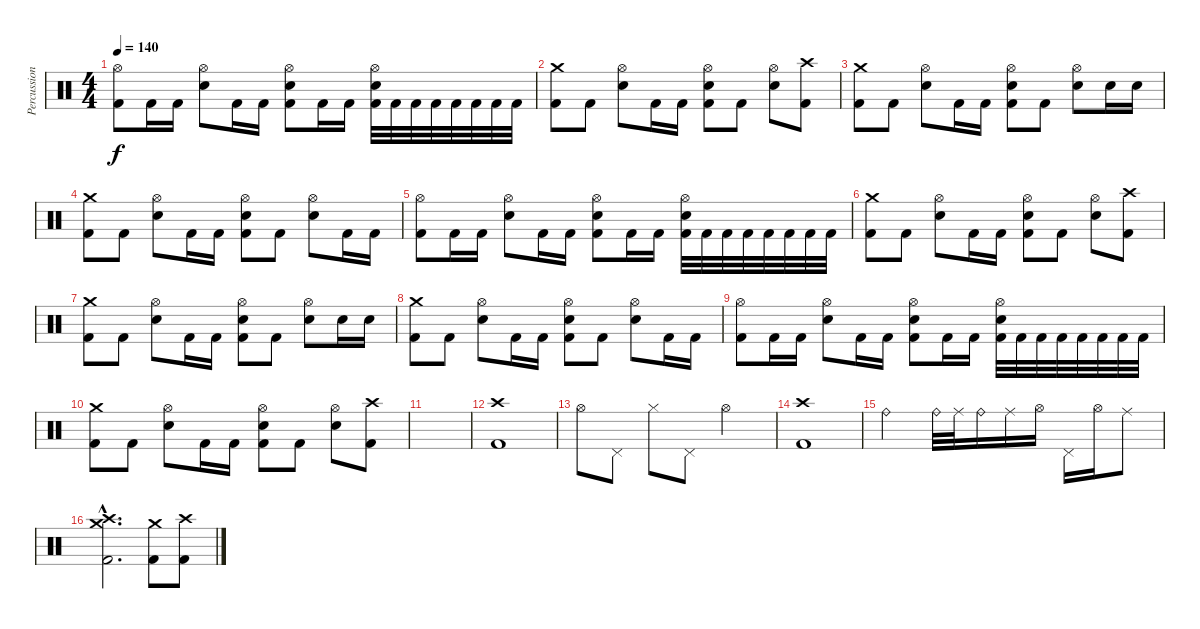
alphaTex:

\track ("Percussion" "Percussion") {instrument percussion}
\staff {score}
\articulation defaults
\ts (4 4)
\tempo 140
\clef neutral
\ks c
("Hi-Hat (open)" "Kick (hit) 2").8{dy f} "Kick (hit) 2".16 "Kick (hit) 2".16 ("Hi-Hat (open)" "Electric Snare (hit)").8 "Kick (hit) 2".16 "Kick (hit) 2".16 ("Hi-Hat (open)" "Electric Snare (hit)" "Kick (hit) 2").8 "Kick (hit) 2".16 "Kick (hit) 2".16 ("Hi-Hat (open)" "Electric Snare (hit)" "Kick (hit) 2").32 "Kick (hit) 2".32 "Kick (hit) 2".32 "Kick (hit) 2".32 "Kick (hit) 2".32 "Kick (hit) 2".32 "Kick (hit) 2".32 "Kick (hit) 2".32 |
("Crash medium (hit)" "Kick (hit) 2").8 "Kick (hit) 2".8 ("Hi-Hat (open)" "Electric Snare (hit)").8 "Kick (hit) 2".16 "Kick (hit) 2".16 ("Hi-Hat (open)" "Electric Snare (hit)" "Kick (hit) 2").8 "Kick (hit) 2".8 ("Hi-Hat (open)" "Electric Snare (hit)").8 ("Crash high (hit)" "Kick (hit) 2").8 |
("Crash medium (hit)" "Kick (hit) 2").8 "Kick (hit) 2".8 ("Hi-Hat (open)" "Electric Snare (hit)").8 "Kick (hit) 2".16 "Kick (hit) 2".16 ("Hi-Hat (open)" "Electric Snare (hit)" "Kick (hit) 2").8 "Kick (hit) 2".8 ("Hi-Hat (open)" "Electric Snare (hit)").8 "Electric Snare (hit)".16 "Electric Snare (hit)".16 |
("Crash medium (hit)" "Kick (hit) 2").8 "Kick (hit) 2".8 ("Hi-Hat (open)" "Electric Snare (hit)").8 "Kick (hit) 2".16 "Kick (hit) 2".16 ("Hi-Hat (open)" "Electric Snare (hit)" "Kick (hit) 2").8 "Kick (hit) 2".8 ("Hi-Hat (open)" "Electric Snare (hit)").8 "Kick (hit) 2".16 "Kick (hit) 2".16 |
("Hi-Hat (open)" "Kick (hit) 2").8 "Kick (hit) 2".16 "Kick (hit) 2".16 ("Hi-Hat (open)" "Electric Snare (hit)").8 "Kick (hit) 2".16 "Kick (hit) 2".16 ("Hi-Hat (open)" "Electric Snare (hit)" "Kick (hit) 2").8 "Kick (hit) 2".16 "Kick (hit) 2".16 ("Hi-Hat (open)" "Electric Snare (hit)" "Kick (hit) 2").32 "Kick (hit) 2".32 "Kick (hit) 2".32 "Kick (hit) 2".32 "Kick (hit) 2".32 "Kick (hit) 2".32 "Kick (hit) 2".32 "Kick (hit) 2".32 |
("Crash medium (hit)" "Kick (hit) 2").8 "Kick (hit) 2".8 ("Hi-Hat (open)" "Electric Snare (hit)").8 "Kick (hit) 2".16 "Kick (hit) 2".16 ("Hi-Hat (open)" "Electric Snare (hit)" "Kick (hit) 2").8 "Kick (hit) 2".8 ("Hi-Hat (open)" "Electric Snare (hit)").8 ("Crash high (hit)" "Kick (hit) 2").8 |
("Crash medium (hit)" "Kick (hit) 2").8 "Kick (hit) 2".8 ("Hi-Hat (open)" "Electric Snare (hit)").8 "Kick (hit) 2".16 "Kick (hit) 2".16 ("Hi-Hat (open)" "Electric Snare (hit)" "Kick (hit) 2").8 "Kick (hit) 2".8 ("Hi-Hat (open)" "Electric Snare (hit)").8 "Electric Snare (hit)".16 "Electric Snare (hit)".16 |
("Crash medium (hit)" "Kick (hit) 2").8 "Kick (hit) 2".8 ("Hi-Hat (open)" "Electric Snare (hit)").8 "Kick (hit) 2".16 "Kick (hit) 2".16 ("Hi-Hat (open)" "Electric Snare (hit)" "Kick (hit) 2").8 "Kick (hit) 2".8 ("Hi-Hat (open)" "Electric Snare (hit)").8 "Kick (hit) 2".16 "Kick (hit) 2".16 |
("Hi-Hat (open)" "Kick (hit) 2").8 "Kick (hit) 2".16 "Kick (hit) 2".16 ("Hi-Hat (open)" "Electric Snare (hit)").8 "Kick (hit) 2".16 "Kick (hit) 2".16 ("Hi-Hat (open)" "Electric Snare (hit)" "Kick (hit) 2").8 "Kick (hit) 2".16 "Kick (hit) 2".16 ("Hi-Hat (open)" "Electric Snare (hit)" "Kick (hit) 2").32 "Kick (hit) 2".32 "Kick (hit) 2".32 "Kick (hit) 2".32 "Kick (hit) 2".32 "Kick (hit) 2".32 "Kick (hit) 2".32 "Kick (hit) 2".32 |
("Crash medium (hit)" "Kick (hit) 2").8 "Kick (hit) 2".8 ("Hi-Hat (open)" "Electric Snare (hit)").8 "Kick (hit) 2".16 "Kick (hit) 2".16 ("Hi-Hat (open)" "Electric Snare (hit)" "Kick (hit) 2").8 "Kick (hit) 2".8 ("Hi-Hat (open)" "Electric Snare (hit)").8 ("Crash high (hit)" "Kick (hit) 2").8 |
|
("Crash high (hit)" "Kick (hit) 2").1 |
"Hi-Hat (open)".8 "Pedal Hi-Hat (hit)".8 "Hi-Hat (closed)".8 "Pedal Hi-Hat (hit)".8 "Hi-Hat (open)".2 |
("Crash high (hit)" "Kick (hit) 2").1 |
"Ride (bell)".2 "Ride (bell)".32 "Ride (middle)".32 "Ride (bell)".16 "Ride (middle)".16 "Hi-Hat (open)".16 "Pedal Hi-Hat (hit)".16 "Hi-Hat (open)".16 "Ride (middle)".8 |
("Crash high (hit)"{hac} "Crash medium (hit)"{hac} "Kick (hit) 2"{hac}).2{d} ("Crash medium (hit)" "Kick (hit) 2").8 ("Crash high (hit)" "Kick (hit) 2").8
